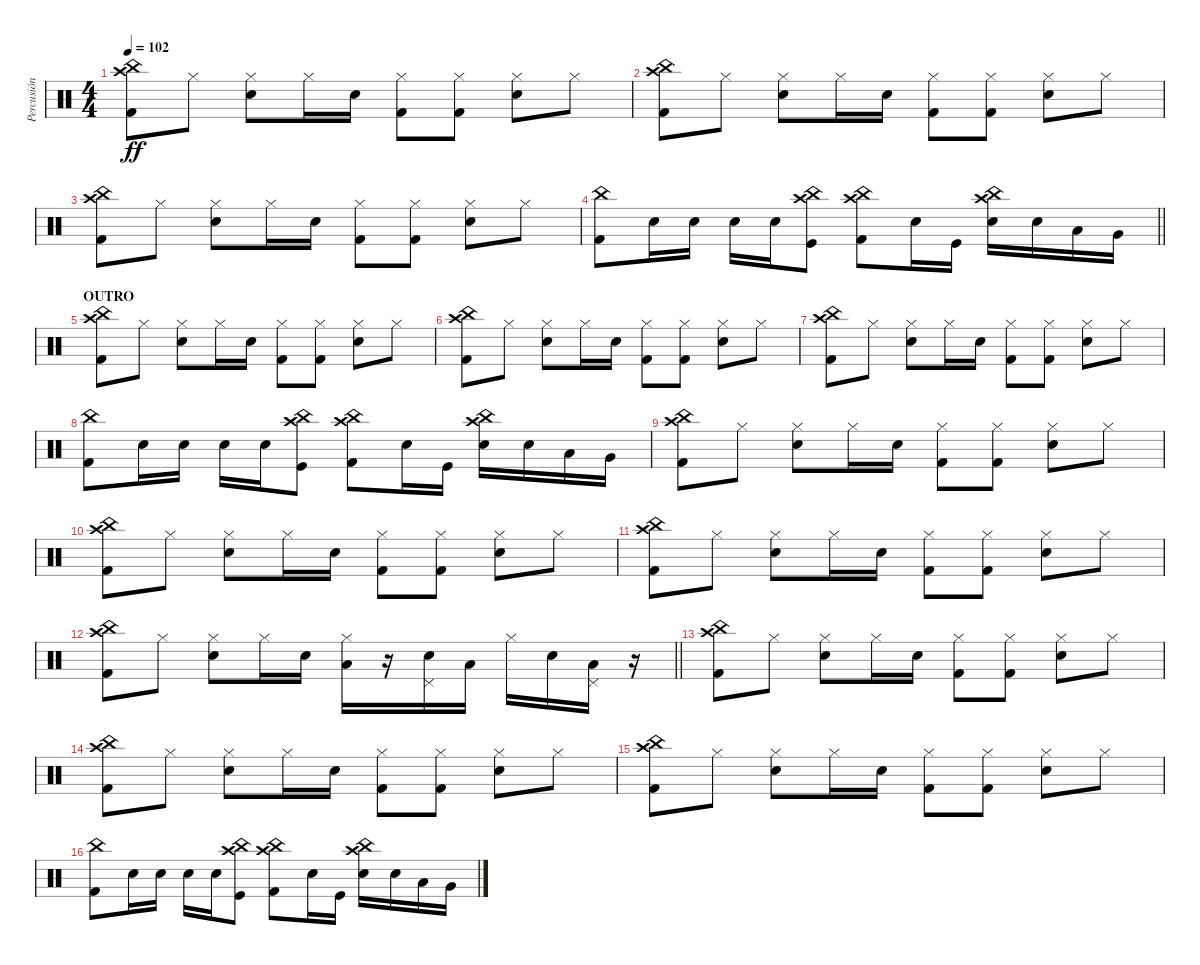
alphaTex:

\track ("Percusión" "Percusión") {instrument percussion}
\staff {score}
\articulation defaults
\ts (4 4)
\tempo 102
\clef neutral
\ks c
("Kick (hit) 2" "China (hit)" "Crash high (hit)").8{dy ff} "Hi-Hat (closed)".8 ("Electric Snare (hit)" "Hi-Hat (closed)").8 "Hi-Hat (closed)".16 "Electric Snare (hit)".16 ("Kick (hit) 2" "Hi-Hat (closed)").8 ("Kick (hit) 2" "Hi-Hat (closed)").8 ("Electric Snare (hit)" "Hi-Hat (closed)").8 "Hi-Hat (closed)".8 |
("Kick (hit) 2" "China (hit)" "Crash high (hit)").8 "Hi-Hat (closed)".8 ("Electric Snare (hit)" "Hi-Hat (closed)").8 "Hi-Hat (closed)".16 "Electric Snare (hit)".16 ("Kick (hit) 2" "Hi-Hat (closed)").8 ("Kick (hit) 2" "Hi-Hat (closed)").8 ("Electric Snare (hit)" "Hi-Hat (closed)").8 "Hi-Hat (closed)".8 |
("Kick (hit) 2" "China (hit)" "Crash high (hit)").8 "Hi-Hat (closed)".8 ("Electric Snare (hit)" "Hi-Hat (closed)").8 "Hi-Hat (closed)".16 "Electric Snare (hit)".16 ("Kick (hit) 2" "Hi-Hat (closed)").8 ("Kick (hit) 2" "Hi-Hat (closed)").8 ("Electric Snare (hit)" "Hi-Hat (closed)").8 "Hi-Hat (closed)".8 |
\barLineRight lightlight
("Kick (hit) 2" "China (hit)").8 "Electric Snare (hit)".16 "Electric Snare (hit)".16 "Electric Snare (hit)".16 "Electric Snare (hit)".16 ("Kick (hit)" "China (hit)" "Crash high (hit)").8 ("Kick (hit) 2" "China (hit)" "Crash high (hit)").8 "Electric Snare (hit)".16 "Kick (hit)".16 ("Electric Snare (hit)" "China (hit)" "Crash high (hit)").16 "Electric Snare (hit)".16 "Low Floor Tom (hit)".16 "Very Low Tom (hit)".16 |
\section ("" "OUTRO")
("Kick (hit) 2" "China (hit)" "Crash high (hit)").8 "Hi-Hat (closed)".8 ("Electric Snare (hit)" "Hi-Hat (closed)").8 "Hi-Hat (closed)".16 "Electric Snare (hit)".16 ("Kick (hit) 2" "Hi-Hat (closed)").8 ("Kick (hit) 2" "Hi-Hat (closed)").8 ("Electric Snare (hit)" "Hi-Hat (closed)").8 "Hi-Hat (closed)".8 |
("Kick (hit) 2" "China (hit)" "Crash high (hit)").8 "Hi-Hat (closed)".8 ("Electric Snare (hit)" "Hi-Hat (closed)").8 "Hi-Hat (closed)".16 "Electric Snare (hit)".16 ("Kick (hit) 2" "Hi-Hat (closed)").8 ("Kick (hit) 2" "Hi-Hat (closed)").8 ("Electric Snare (hit)" "Hi-Hat (closed)").8 "Hi-Hat (closed)".8 |
("Kick (hit) 2" "China (hit)" "Crash high (hit)").8 "Hi-Hat (closed)".8 ("Electric Snare (hit)" "Hi-Hat (closed)").8 "Hi-Hat (closed)".16 "Electric Snare (hit)".16 ("Kick (hit) 2" "Hi-Hat (closed)").8 ("Kick (hit) 2" "Hi-Hat (closed)").8 ("Electric Snare (hit)" "Hi-Hat (closed)").8 "Hi-Hat (closed)".8 |
("Kick (hit) 2" "China (hit)").8 "Electric Snare (hit)".16 "Electric Snare (hit)".16 "Electric Snare (hit)".16 "Electric Snare (hit)".16 ("Kick (hit)" "China (hit)" "Crash high (hit)").8 ("Kick (hit) 2" "China (hit)" "Crash high (hit)").8 "Electric Snare (hit)".16 "Kick (hit)".16 ("Electric Snare (hit)" "China (hit)" "Crash high (hit)").16 "Electric Snare (hit)".16 "Low Floor Tom (hit)".16 "Very Low Tom (hit)".16 |
("Kick (hit) 2" "China (hit)" "Crash high (hit)").8 "Hi-Hat (closed)".8 ("Electric Snare (hit)" "Hi-Hat (closed)").8 "Hi-Hat (closed)".16 "Electric Snare (hit)".16 ("Kick (hit) 2" "Hi-Hat (closed)").8 ("Kick (hit) 2" "Hi-Hat (closed)").8 ("Electric Snare (hit)" "Hi-Hat (closed)").8 "Hi-Hat (closed)".8 |
("Kick (hit) 2" "China (hit)" "Crash high (hit)").8 "Hi-Hat (closed)".8 ("Electric Snare (hit)" "Hi-Hat (closed)").8 "Hi-Hat (closed)".16 "Electric Snare (hit)".16 ("Kick (hit) 2" "Hi-Hat (closed)").8 ("Kick (hit) 2" "Hi-Hat (closed)").8 ("Electric Snare (hit)" "Hi-Hat (closed)").8 "Hi-Hat (closed)".8 |
("Kick (hit) 2" "China (hit)" "Crash high (hit)").8 "Hi-Hat (closed)".8 ("Electric Snare (hit)" "Hi-Hat (closed)").8 "Hi-Hat (closed)".16 "Electric Snare (hit)".16 ("Kick (hit) 2" "Hi-Hat (closed)").8 ("Kick (hit) 2" "Hi-Hat (closed)").8 ("Electric Snare (hit)" "Hi-Hat (closed)").8 "Hi-Hat (closed)".8 |
\barLineRight lightlight
("Kick (hit) 2" "China (hit)" "Crash high (hit)").8 "Hi-Hat (closed)".8 ("Electric Snare (hit)" "Hi-Hat (closed)").8 "Hi-Hat (closed)".16 "Electric Snare (hit)".16 ("Low Tom (hit)" "Hi-Hat (closed)").16 r.16 ("Electric Snare (hit)" "Pedal Hi-Hat (hit)").16 "Low Tom (hit)".16 "Hi-Hat (closed)".16 "Electric Snare (hit)".16 ("Low Tom (hit)" "Pedal Hi-Hat (hit)").16 r.16 |
("Kick (hit) 2" "China (hit)" "Crash high (hit)").8 "Hi-Hat (closed)".8 ("Electric Snare (hit)" "Hi-Hat (closed)").8 "Hi-Hat (closed)".16 "Electric Snare (hit)".16 ("Kick (hit) 2" "Hi-Hat (closed)").8 ("Kick (hit) 2" "Hi-Hat (closed)").8 ("Electric Snare (hit)" "Hi-Hat (closed)").8 "Hi-Hat (closed)".8 |
("Kick (hit) 2" "China (hit)" "Crash high (hit)").8 "Hi-Hat (closed)".8 ("Electric Snare (hit)" "Hi-Hat (closed)").8 "Hi-Hat (closed)".16 "Electric Snare (hit)".16 ("Kick (hit) 2" "Hi-Hat (closed)").8 ("Kick (hit) 2" "Hi-Hat (closed)").8 ("Electric Snare (hit)" "Hi-Hat (closed)").8 "Hi-Hat (closed)".8 |
("Kick (hit) 2" "China (hit)" "Crash high (hit)").8 "Hi-Hat (closed)".8 ("Electric Snare (hit)" "Hi-Hat (closed)").8 "Hi-Hat (closed)".16 "Electric Snare (hit)".16 ("Kick (hit) 2" "Hi-Hat (closed)").8 ("Kick (hit) 2" "Hi-Hat (closed)").8 ("Electric Snare (hit)" "Hi-Hat (closed)").8 "Hi-Hat (closed)".8 |
("Kick (hit) 2" "China (hit)").8 "Electric Snare (hit)".16 "Electric Snare (hit)".16 "Electric Snare (hit)".16 "Electric Snare (hit)".16 ("Kick (hit)" "China (hit)" "Crash high (hit)").8 ("Kick (hit) 2" "China (hit)" "Crash high (hit)").8 "Electric Snare (hit)".16 "Kick (hit)".16 ("Electric Snare (hit)" "China (hit)" "Crash high (hit)").16 "Electric Snare (hit)".16 "Low Floor Tom (hit)".16 "Very Low Tom (hit)".16
